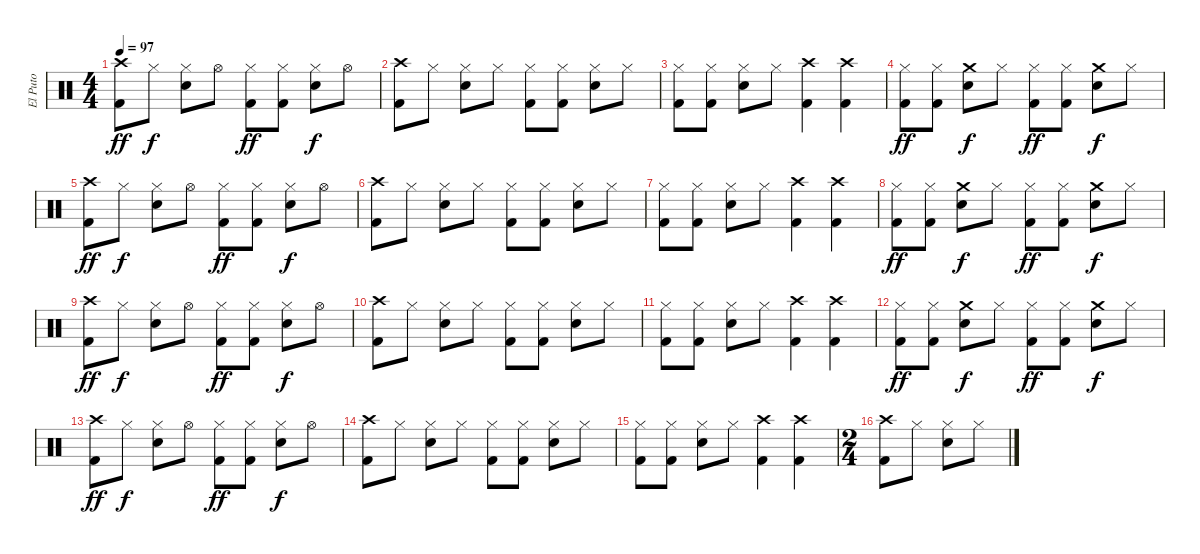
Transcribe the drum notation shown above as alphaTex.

\track ("El Puto" "El Puto") {instrument percussion}
\staff {score}
\articulation defaults
\ts (4 4)
\tempo 97
\clef neutral
\ks c
("Crash high (hit)" "Kick (hit) 2").8{dy ff} "Hi-Hat (closed)".8{dy f} ("Hi-Hat (closed)" "Snare (hit) 2").8 "Hi-Hat (open)".8 ("Hi-Hat (closed)" "Kick (hit) 2").8{dy ff} ("Hi-Hat (closed)" "Kick (hit) 2").8 ("Hi-Hat (closed)" "Snare (hit) 2").8{dy f} "Hi-Hat (open)".8 |
("Crash high (hit)" "Kick (hit) 2").8 "Hi-Hat (closed)".8 ("Hi-Hat (closed)" "Snare (hit) 2").8 "Hi-Hat (closed)".8 ("Hi-Hat (closed)" "Kick (hit) 2").8 ("Hi-Hat (closed)" "Kick (hit) 2").8 ("Hi-Hat (closed)" "Snare (hit) 2").8 "Hi-Hat (closed)".8 |
("Hi-Hat (closed)" "Kick (hit) 2").8 ("Hi-Hat (closed)" "Kick (hit) 2").8 ("Hi-Hat (closed)" "Snare (hit) 2").8 "Hi-Hat (closed)".8 ("Crash high (hit)" "Kick (hit) 2").4 ("Crash high (hit)" "Kick (hit) 2").4 |
("Hi-Hat (closed)" "Kick (hit) 2").8{dy ff} ("Hi-Hat (closed)" "Kick (hit) 2").8 ("Crash medium (hit)" "Snare (hit) 2").8{dy f} "Hi-Hat (closed)".8 ("Hi-Hat (closed)" "Kick (hit) 2").8{dy ff} ("Hi-Hat (closed)" "Kick (hit) 2").8 ("Crash medium (hit)" "Snare (hit) 2").8{dy f} "Hi-Hat (closed)".8 |
("Crash high (hit)" "Kick (hit) 2").8{dy ff} "Hi-Hat (closed)".8{dy f} ("Hi-Hat (closed)" "Snare (hit) 2").8 "Hi-Hat (open)".8 ("Hi-Hat (closed)" "Kick (hit) 2").8{dy ff} ("Hi-Hat (closed)" "Kick (hit) 2").8 ("Hi-Hat (closed)" "Snare (hit) 2").8{dy f} "Hi-Hat (open)".8 |
("Crash high (hit)" "Kick (hit) 2").8 "Hi-Hat (closed)".8 ("Hi-Hat (closed)" "Snare (hit) 2").8 "Hi-Hat (closed)".8 ("Hi-Hat (closed)" "Kick (hit) 2").8 ("Hi-Hat (closed)" "Kick (hit) 2").8 ("Hi-Hat (closed)" "Snare (hit) 2").8 "Hi-Hat (closed)".8 |
("Hi-Hat (closed)" "Kick (hit) 2").8 ("Hi-Hat (closed)" "Kick (hit) 2").8 ("Hi-Hat (closed)" "Snare (hit) 2").8 "Hi-Hat (closed)".8 ("Crash high (hit)" "Kick (hit) 2").4 ("Crash high (hit)" "Kick (hit) 2").4 |
("Hi-Hat (closed)" "Kick (hit) 2").8{dy ff} ("Hi-Hat (closed)" "Kick (hit) 2").8 ("Crash medium (hit)" "Snare (hit) 2").8{dy f} "Hi-Hat (closed)".8 ("Hi-Hat (closed)" "Kick (hit) 2").8{dy ff} ("Hi-Hat (closed)" "Kick (hit) 2").8 ("Crash medium (hit)" "Snare (hit) 2").8{dy f} "Hi-Hat (closed)".8 |
("Crash high (hit)" "Kick (hit) 2").8{dy ff} "Hi-Hat (closed)".8{dy f} ("Hi-Hat (closed)" "Snare (hit) 2").8 "Hi-Hat (open)".8 ("Hi-Hat (closed)" "Kick (hit) 2").8{dy ff} ("Hi-Hat (closed)" "Kick (hit) 2").8 ("Hi-Hat (closed)" "Snare (hit) 2").8{dy f} "Hi-Hat (open)".8 |
("Crash high (hit)" "Kick (hit) 2").8 "Hi-Hat (closed)".8 ("Hi-Hat (closed)" "Snare (hit) 2").8 "Hi-Hat (closed)".8 ("Hi-Hat (closed)" "Kick (hit) 2").8 ("Hi-Hat (closed)" "Kick (hit) 2").8 ("Hi-Hat (closed)" "Snare (hit) 2").8 "Hi-Hat (closed)".8 |
("Hi-Hat (closed)" "Kick (hit) 2").8 ("Hi-Hat (closed)" "Kick (hit) 2").8 ("Hi-Hat (closed)" "Snare (hit) 2").8 "Hi-Hat (closed)".8 ("Crash high (hit)" "Kick (hit) 2").4 ("Crash high (hit)" "Kick (hit) 2").4 |
("Hi-Hat (closed)" "Kick (hit) 2").8{dy ff} ("Hi-Hat (closed)" "Kick (hit) 2").8 ("Crash medium (hit)" "Snare (hit) 2").8{dy f} "Hi-Hat (closed)".8 ("Hi-Hat (closed)" "Kick (hit) 2").8{dy ff} ("Hi-Hat (closed)" "Kick (hit) 2").8 ("Crash medium (hit)" "Snare (hit) 2").8{dy f} "Hi-Hat (closed)".8 |
("Crash high (hit)" "Kick (hit) 2").8{dy ff} "Hi-Hat (closed)".8{dy f} ("Hi-Hat (closed)" "Snare (hit) 2").8 "Hi-Hat (open)".8 ("Hi-Hat (closed)" "Kick (hit) 2").8{dy ff} ("Hi-Hat (closed)" "Kick (hit) 2").8 ("Hi-Hat (closed)" "Snare (hit) 2").8{dy f} "Hi-Hat (open)".8 |
("Crash high (hit)" "Kick (hit) 2").8 "Hi-Hat (closed)".8 ("Hi-Hat (closed)" "Snare (hit) 2").8 "Hi-Hat (closed)".8 ("Hi-Hat (closed)" "Kick (hit) 2").8 ("Hi-Hat (closed)" "Kick (hit) 2").8 ("Hi-Hat (closed)" "Snare (hit) 2").8 "Hi-Hat (closed)".8 |
("Hi-Hat (closed)" "Kick (hit) 2").8 ("Hi-Hat (closed)" "Kick (hit) 2").8 ("Hi-Hat (closed)" "Snare (hit) 2").8 "Hi-Hat (closed)".8 ("Crash high (hit)" "Kick (hit) 2").4 ("Crash high (hit)" "Kick (hit) 2").4 |
\ts (2 4)
("Crash high (hit)" "Kick (hit) 2").8 "Hi-Hat (closed)".8 ("Hi-Hat (closed)" "Snare (hit) 2").8 "Hi-Hat (closed)".8
